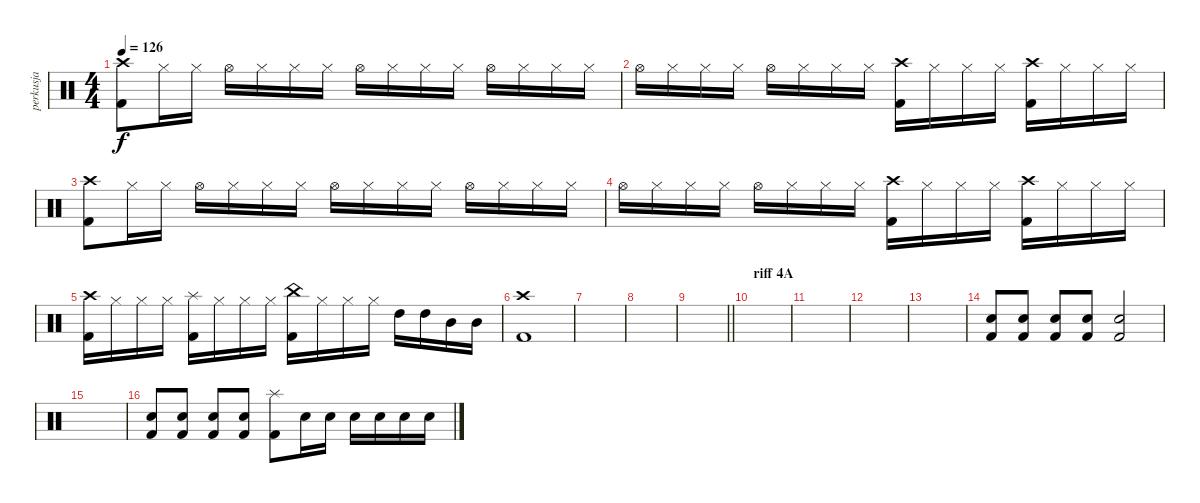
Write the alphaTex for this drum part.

\track ("perkusja" "perkusja") {instrument percussion}
\staff {score}
\articulation defaults
\ts (4 4)
\tempo 126
\clef neutral
\ks c
("Crash high (hit)" "Kick (hit) 2").8{dy f} "Hi-Hat (closed)".16 "Hi-Hat (closed)".16 "Hi-Hat (open)".16 "Hi-Hat (closed)".16 "Hi-Hat (closed)".16 "Hi-Hat (closed)".16 "Hi-Hat (open)".16 "Hi-Hat (closed)".16 "Hi-Hat (closed)".16 "Hi-Hat (closed)".16 "Hi-Hat (open)".16 "Hi-Hat (closed)".16 "Hi-Hat (closed)".16 "Hi-Hat (closed)".16 |
"Hi-Hat (open)".16 "Hi-Hat (closed)".16 "Hi-Hat (closed)".16 "Hi-Hat (closed)".16 "Hi-Hat (open)".16 "Hi-Hat (closed)".16 "Hi-Hat (closed)".16 "Hi-Hat (closed)".16 ("Crash high (hit)" "Kick (hit) 2").16 "Hi-Hat (closed)".16 "Hi-Hat (closed)".16 "Hi-Hat (closed)".16 ("Crash high (hit)" "Kick (hit) 2").16 "Hi-Hat (closed)".16 "Hi-Hat (closed)".16 "Hi-Hat (closed)".16 |
("Crash high (hit)" "Kick (hit) 2").8 "Hi-Hat (closed)".16 "Hi-Hat (closed)".16 "Hi-Hat (open)".16 "Hi-Hat (closed)".16 "Hi-Hat (closed)".16 "Hi-Hat (closed)".16 "Hi-Hat (open)".16 "Hi-Hat (closed)".16 "Hi-Hat (closed)".16 "Hi-Hat (closed)".16 "Hi-Hat (open)".16 "Hi-Hat (closed)".16 "Hi-Hat (closed)".16 "Hi-Hat (closed)".16 |
"Hi-Hat (open)".16 "Hi-Hat (closed)".16 "Hi-Hat (closed)".16 "Hi-Hat (closed)".16 "Hi-Hat (open)".16 "Hi-Hat (closed)".16 "Hi-Hat (closed)".16 "Hi-Hat (closed)".16 ("Crash high (hit)" "Kick (hit) 2").16 "Hi-Hat (closed)".16 "Hi-Hat (closed)".16 "Hi-Hat (closed)".16 ("Crash high (hit)" "Kick (hit) 2").16 "Hi-Hat (closed)".16 "Hi-Hat (closed)".16 "Hi-Hat (closed)".16 |
("Crash high (hit)" "Kick (hit) 2").16 "Hi-Hat (closed)".16 "Hi-Hat (closed)".16 "Hi-Hat (closed)".16 ("Splash (hit)" "Kick (hit) 2").16 "Hi-Hat (closed)".16 "Hi-Hat (closed)".16 "Hi-Hat (closed)".16 ("China (hit)" "Kick (hit) 2").16 "Hi-Hat (closed)".16 "Hi-Hat (closed)".16 "Hi-Hat (closed)".16 "High Tom (hit)".16 "High Tom (hit)".16 "Mid Tom (hit)".16 "Mid Tom (hit)".16 |
("Crash high (hit)" "Kick (hit) 2").1 |
|
|
\barLineRight lightlight
|
\section ("" "riff 4A")
|
|
|
|
("Electric Snare (hit)" "Kick (hit) 2").8 ("Electric Snare (hit)" "Kick (hit) 2").8 ("Electric Snare (hit)" "Kick (hit) 2").8 ("Electric Snare (hit)" "Kick (hit) 2").8 ("Electric Snare (hit)" "Kick (hit) 2").2 |
|
("Electric Snare (hit)" "Kick (hit) 2").8 ("Electric Snare (hit)" "Kick (hit) 2").8 ("Electric Snare (hit)" "Kick (hit) 2").8 ("Electric Snare (hit)" "Kick (hit) 2").8 ("Splash (hit)" "Kick (hit) 2").8 "Electric Snare (hit)".16 "Electric Snare (hit)".16 "Electric Snare (hit)".16 "Electric Snare (hit)".16 "Electric Snare (hit)".16 "Electric Snare (hit)".16
